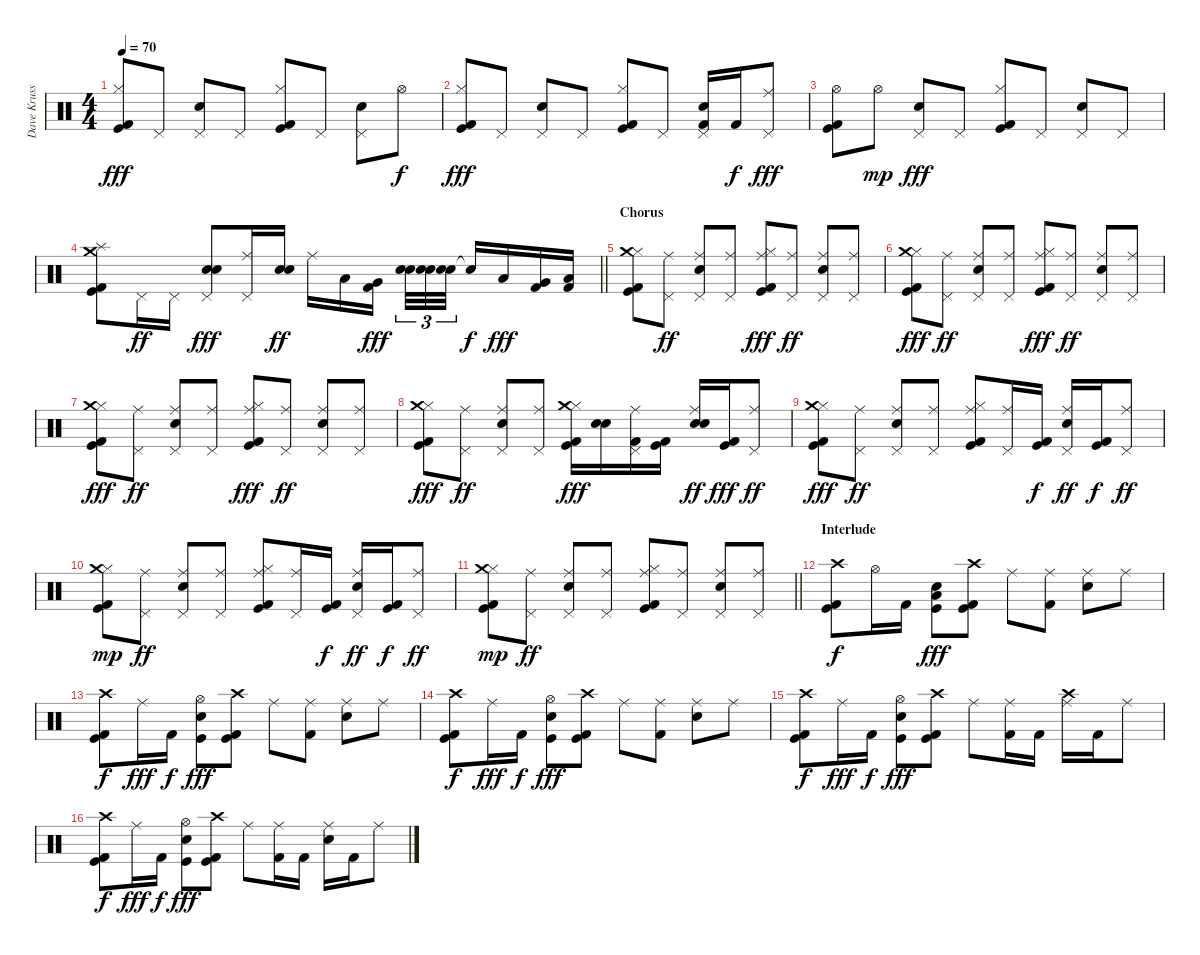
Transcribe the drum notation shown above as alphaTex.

\track ("Dave Krussen" "Dave Kruss") {instrument percussion}
\staff {score}
\articulation defaults
\ts (4 4)
\tempo 70
\clef neutral
\ks c
("Kick (hit)" "Hi-Hat (closed)" "Kick (hit) 2").8{dy fff} "Pedal Hi-Hat (hit)".8 ("Electric Snare (hit)" "Pedal Hi-Hat (hit)").8 "Pedal Hi-Hat (hit)".8 ("Kick (hit)" "Hi-Hat (closed)" "Kick (hit) 2").8 "Pedal Hi-Hat (hit)".8 ("Electric Snare (hit)" "Pedal Hi-Hat (hit)").8 "Hi-Hat (open)".8{dy f} |
("Kick (hit)" "Hi-Hat (closed)" "Kick (hit) 2").8{dy fff} "Pedal Hi-Hat (hit)".8 ("Electric Snare (hit)" "Pedal Hi-Hat (hit)").8 "Pedal Hi-Hat (hit)".8 ("Kick (hit)" "Hi-Hat (closed)" "Kick (hit) 2").8 "Pedal Hi-Hat (hit)".8 ("Electric Snare (hit)" "Pedal Hi-Hat (hit)" "Kick (hit) 2").16 "Kick (hit) 2".16{dy f} ("Ride (middle)" "Pedal Hi-Hat (hit)").8{dy fff} |
("Kick (hit)" "Hi-Hat (open)" "Kick (hit) 2").8 "Hi-Hat (open)".8{dy mp} ("Electric Snare (hit)" "Pedal Hi-Hat (hit)").8{dy fff} "Pedal Hi-Hat (hit)".8 ("Kick (hit)" "Hi-Hat (closed)" "Kick (hit) 2").8 "Pedal Hi-Hat (hit)".8 ("Electric Snare (hit)" "Pedal Hi-Hat (hit)").8 "Pedal Hi-Hat (hit)".8 |
\barLineRight lightlight
("Crash medium (hit)" "Kick (hit)" "Splash (hit)" "Kick (hit) 2").8 "Pedal Hi-Hat (hit)".16{dy ff} "Pedal Hi-Hat (hit)".16 ("Snare (hit) 2" "Electric Snare (hit)" "Pedal Hi-Hat (hit)").8{dy fff} ("Ride (middle)" "Pedal Hi-Hat (hit)").16 ("Snare (hit) 2" "Electric Snare (hit)").16{dy ff} "Ride (middle)".16 "Low Tom (hit)".16 ("Very Low Tom (hit)" "Kick (hit) 2").16{dy fff beam splitsecondary} ("Snare (hit) 2" "Electric Snare (hit)").32{tu (3 2)} ("Snare (hit) 2" "Electric Snare (hit)").32{tu (3 2)} ("Snare (hit) 2" "Electric Snare (hit)").32{tu (3 2)} "Electric Snare (hit)"{t}.16{dy f} "Low Tom (hit)".16{dy fff} ("Very Low Tom (hit)" "Kick (hit) 2").16 ("Low Floor Tom (hit)" "Kick (hit) 2").16 |
\section ("" "Chorus")
("Kick (hit)" "Hi-Hat (closed)" "Crash medium (hit)" "Kick (hit) 2").8 ("Pedal Hi-Hat (hit)" "Ride (middle)").8{dy ff} ("Electric Snare (hit)" "Pedal Hi-Hat (hit)" "Ride (middle)").8 ("Pedal Hi-Hat (hit)" "Ride (middle)").8 ("Kick (hit)" "Hi-Hat (closed)" "Ride (middle)" "Kick (hit) 2").8{dy fff} ("Pedal Hi-Hat (hit)" "Ride (middle)").8{dy ff} ("Electric Snare (hit)" "Pedal Hi-Hat (hit)" "Ride (middle)").8 ("Pedal Hi-Hat (hit)" "Ride (middle)").8 |
("Kick (hit)" "Hi-Hat (closed)" "Crash medium (hit)" "Kick (hit) 2").8{dy fff} ("Pedal Hi-Hat (hit)" "Ride (middle)").8{dy ff} ("Electric Snare (hit)" "Pedal Hi-Hat (hit)" "Ride (middle)").8 ("Pedal Hi-Hat (hit)" "Ride (middle)").8 ("Kick (hit)" "Hi-Hat (closed)" "Ride (middle)" "Kick (hit) 2").8{dy fff} ("Pedal Hi-Hat (hit)" "Ride (middle)").8{dy ff} ("Electric Snare (hit)" "Pedal Hi-Hat (hit)" "Ride (middle)").8 ("Pedal Hi-Hat (hit)" "Ride (middle)").8 |
("Kick (hit)" "Hi-Hat (closed)" "Crash medium (hit)" "Kick (hit) 2").8{dy fff} ("Pedal Hi-Hat (hit)" "Ride (middle)").8{dy ff} ("Electric Snare (hit)" "Pedal Hi-Hat (hit)" "Ride (middle)").8 ("Pedal Hi-Hat (hit)" "Ride (middle)").8 ("Kick (hit)" "Hi-Hat (closed)" "Ride (middle)" "Kick (hit) 2").8{dy fff} ("Pedal Hi-Hat (hit)" "Ride (middle)").8{dy ff} ("Electric Snare (hit)" "Pedal Hi-Hat (hit)" "Ride (middle)").8 ("Pedal Hi-Hat (hit)" "Ride (middle)").8 |
("Kick (hit)" "Hi-Hat (closed)" "Crash medium (hit)" "Kick (hit) 2").8{dy fff} ("Pedal Hi-Hat (hit)" "Ride (middle)").8{dy ff} ("Electric Snare (hit)" "Pedal Hi-Hat (hit)" "Ride (middle)").8 ("Pedal Hi-Hat (hit)" "Ride (middle)").8 ("Kick (hit)" "Hi-Hat (closed)" "Crash medium (hit)" "Kick (hit) 2").16{dy fff} ("Snare (hit) 2" "Electric Snare (hit)").16 ("Pedal Hi-Hat (hit)" "Ride (middle)" "Kick (hit) 2").16 ("Kick (hit)" "Kick (hit) 2").16 ("Snare (hit) 2" "Electric Snare (hit)" "Ride (middle)").16{dy ff} ("Kick (hit)" "Kick (hit) 2").16{dy fff} ("Pedal Hi-Hat (hit)" "Ride (middle)").8{dy ff} |
("Kick (hit)" "Hi-Hat (closed)" "Crash medium (hit)" "Kick (hit) 2").8{dy fff} ("Pedal Hi-Hat (hit)" "Ride (middle)").8{dy ff} ("Electric Snare (hit)" "Pedal Hi-Hat (hit)" "Ride (middle)").8 ("Pedal Hi-Hat (hit)" "Ride (middle)").8 ("Kick (hit)" "Hi-Hat (closed)" "Ride (middle)" "Kick (hit) 2").8 ("Pedal Hi-Hat (hit)" "Ride (middle)").16 ("Kick (hit)" "Kick (hit) 2").16{dy f} ("Electric Snare (hit)" "Pedal Hi-Hat (hit)" "Ride (middle)").16{dy ff} ("Kick (hit)" "Kick (hit) 2").16{dy f} ("Pedal Hi-Hat (hit)" "Ride (middle)").8{dy ff} |
("Kick (hit)" "Hi-Hat (closed)" "Crash medium (hit)" "Kick (hit) 2").8{dy mp} ("Pedal Hi-Hat (hit)" "Ride (middle)").8{dy ff} ("Electric Snare (hit)" "Pedal Hi-Hat (hit)" "Ride (middle)").8 ("Pedal Hi-Hat (hit)" "Ride (middle)").8 ("Kick (hit)" "Hi-Hat (closed)" "Ride (middle)" "Kick (hit) 2").8 ("Pedal Hi-Hat (hit)" "Ride (middle)").16 ("Kick (hit)" "Kick (hit) 2").16{dy f} ("Electric Snare (hit)" "Pedal Hi-Hat (hit)" "Ride (middle)").16{dy ff} ("Kick (hit)" "Kick (hit) 2").16{dy f} ("Pedal Hi-Hat (hit)" "Ride (middle)").8{dy ff} |
\barLineRight lightlight
("Kick (hit)" "Hi-Hat (closed)" "Crash medium (hit)" "Kick (hit) 2").8{dy mp} ("Pedal Hi-Hat (hit)" "Ride (middle)").8{dy ff} ("Electric Snare (hit)" "Pedal Hi-Hat (hit)" "Ride (middle)").8 ("Pedal Hi-Hat (hit)" "Ride (middle)").8 ("Kick (hit)" "Hi-Hat (closed)" "Ride (middle)" "Kick (hit) 2").8 ("Pedal Hi-Hat (hit)" "Ride (middle)").8 ("Electric Snare (hit)" "Pedal Hi-Hat (hit)" "Ride (middle)").8 ("Pedal Hi-Hat (hit)" "Ride (middle)").8 |
\section ("" "Interlude")
("Crash high (hit)" "Kick (hit)" "Kick (hit) 2").8{dy f} "Hi-Hat (open)".16 "Kick (hit) 2".16 ("Low Floor Tom (hit)" "Electric Snare (hit)" "Kick (hit)").8{dy fff} ("Crash high (hit)" "Kick (hit)" "Kick (hit) 2").8 "Ride (middle)".8 ("Ride (middle)" "Kick (hit) 2").8 ("Ride (middle)" "Electric Snare (hit)").8 "Ride (middle)".8 |
("Crash high (hit)" "Kick (hit)" "Kick (hit) 2").8{dy f} "Ride (middle)".16{dy fff} "Kick (hit) 2".16{dy f} ("Hi-Hat (open)" "Electric Snare (hit)" "Kick (hit)").8{dy fff} ("Crash high (hit)" "Kick (hit)" "Kick (hit) 2").8 "Ride (middle)".8 ("Ride (middle)" "Kick (hit) 2").8 ("Ride (middle)" "Electric Snare (hit)").8 "Ride (middle)".8 |
("Crash high (hit)" "Kick (hit)" "Kick (hit) 2").8{dy f} "Ride (middle)".16{dy fff} "Kick (hit) 2".16{dy f} ("Hi-Hat (open)" "Electric Snare (hit)" "Kick (hit)").8{dy fff} ("Crash high (hit)" "Kick (hit)" "Kick (hit) 2").8 "Ride (middle)".8 ("Ride (middle)" "Kick (hit) 2").8 ("Ride (middle)" "Electric Snare (hit)").8 "Ride (middle)".8 |
("Crash high (hit)" "Kick (hit)" "Kick (hit) 2").8{dy f} "Ride (middle)".16{dy fff} "Kick (hit) 2".16{dy f} ("Hi-Hat (open)" "Electric Snare (hit)" "Kick (hit)").8{dy fff} ("Crash high (hit)" "Kick (hit)" "Kick (hit) 2").8 "Ride (middle)".8 ("Ride (middle)" "Kick (hit) 2").16 "Kick (hit) 2".16 ("Ride (middle)" "Crash high (hit)").16 "Kick (hit) 2".16 "Ride (middle)".8 |
("Crash high (hit)" "Kick (hit)" "Kick (hit) 2").8{dy f} "Ride (middle)".16{dy fff} "Kick (hit) 2".16{dy f} ("Hi-Hat (open)" "Electric Snare (hit)" "Kick (hit)").8{dy fff} ("Crash high (hit)" "Kick (hit)" "Kick (hit) 2").8 "Ride (middle)".8 ("Ride (middle)" "Kick (hit) 2").16 "Kick (hit) 2".16 ("Ride (middle)" "Electric Snare (hit)").16 "Kick (hit) 2".16 "Ride (middle)".8
